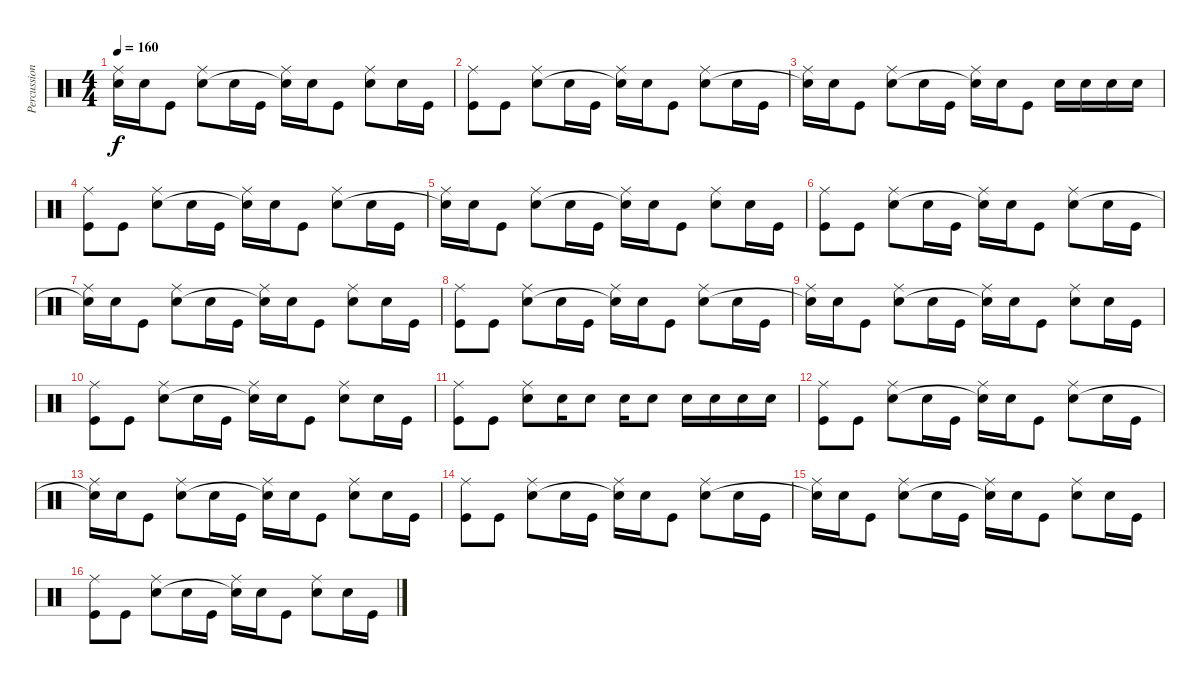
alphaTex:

\track ("Percussion" "Percussion") {instrument percussion}
\staff {score}
\articulation defaults
\ts (4 4)
\tempo 160
\clef neutral
\ks c
("Ride (middle)" "Snare (hit)"{t}).16{dy f} "Snare (hit) 2".16 "Kick (hit)".8 ("Ride (middle)" "Snare (hit) 2").8 "Snare (hit) 2".16 "Kick (hit)".16 ("Ride (middle)" "Snare (hit)"{t}).16 "Snare (hit) 2".16 "Kick (hit)".8 ("Ride (middle)" "Snare (hit) 2").8 "Snare (hit) 2".16 "Kick (hit)".16 |
("Ride (middle)" "Kick (hit)").8 "Kick (hit)".8 ("Ride (middle)" "Snare (hit) 2").8 "Snare (hit) 2".16 "Kick (hit)".16 ("Ride (middle)" "Snare (hit)"{t}).16 "Snare (hit) 2".16 "Kick (hit)".8 ("Ride (middle)" "Snare (hit) 2").8 "Snare (hit) 2".16 "Kick (hit)".16 |
("Ride (middle)" "Snare (hit)"{t}).16 "Snare (hit) 2".16 "Kick (hit)".8 ("Ride (middle)" "Snare (hit) 2").8 "Snare (hit) 2".16 "Kick (hit)".16 ("Ride (middle)" "Snare (hit)"{t}).16 "Snare (hit) 2".16 "Kick (hit)".8 "Snare (hit) 2".16 "Snare (hit) 2".16 "Snare (hit) 2".16 "Snare (hit) 2".16 |
("Ride (middle)" "Kick (hit)").8 "Kick (hit)".8 ("Ride (middle)" "Snare (hit) 2").8 "Snare (hit) 2".16 "Kick (hit)".16 ("Ride (middle)" "Snare (hit)"{t}).16 "Snare (hit) 2".16 "Kick (hit)".8 ("Ride (middle)" "Snare (hit) 2").8 "Snare (hit) 2".16 "Kick (hit)".16 |
("Ride (middle)" "Snare (hit)"{t}).16 "Snare (hit) 2".16 "Kick (hit)".8 ("Ride (middle)" "Snare (hit) 2").8 "Snare (hit) 2".16 "Kick (hit)".16 ("Ride (middle)" "Snare (hit)"{t}).16 "Snare (hit) 2".16 "Kick (hit)".8 ("Ride (middle)" "Snare (hit) 2").8 "Snare (hit) 2".16 "Kick (hit)".16 |
("Ride (middle)" "Kick (hit)").8 "Kick (hit)".8 ("Ride (middle)" "Snare (hit) 2").8 "Snare (hit) 2".16 "Kick (hit)".16 ("Ride (middle)" "Snare (hit)"{t}).16 "Snare (hit) 2".16 "Kick (hit)".8 ("Ride (middle)" "Snare (hit) 2").8 "Snare (hit) 2".16 "Kick (hit)".16 |
("Ride (middle)" "Snare (hit)"{t}).16 "Snare (hit) 2".16 "Kick (hit)".8 ("Ride (middle)" "Snare (hit) 2").8 "Snare (hit) 2".16 "Kick (hit)".16 ("Ride (middle)" "Snare (hit)"{t}).16 "Snare (hit) 2".16 "Kick (hit)".8 ("Ride (middle)" "Snare (hit) 2").8 "Snare (hit) 2".16 "Kick (hit)".16 |
("Ride (middle)" "Kick (hit)").8 "Kick (hit)".8 ("Ride (middle)" "Snare (hit) 2").8 "Snare (hit) 2".16 "Kick (hit)".16 ("Ride (middle)" "Snare (hit)"{t}).16 "Snare (hit) 2".16 "Kick (hit)".8 ("Ride (middle)" "Snare (hit) 2").8 "Snare (hit) 2".16 "Kick (hit)".16 |
("Ride (middle)" "Snare (hit)"{t}).16 "Snare (hit) 2".16 "Kick (hit)".8 ("Ride (middle)" "Snare (hit) 2").8 "Snare (hit) 2".16 "Kick (hit)".16 ("Ride (middle)" "Snare (hit)"{t}).16 "Snare (hit) 2".16 "Kick (hit)".8 ("Ride (middle)" "Snare (hit) 2").8 "Snare (hit) 2".16 "Kick (hit)".16 |
("Ride (middle)" "Kick (hit)").8 "Kick (hit)".8 ("Ride (middle)" "Snare (hit) 2").8 "Snare (hit) 2".16 "Kick (hit)".16 ("Ride (middle)" "Snare (hit)"{t}).16 "Snare (hit) 2".16 "Kick (hit)".8 ("Ride (middle)" "Snare (hit) 2").8 "Snare (hit) 2".16 "Kick (hit)".16 |
("Ride (middle)" "Kick (hit)").8 "Kick (hit)".8 ("Ride (middle)" "Snare (hit) 2").8 "Snare (hit) 2".16 "Snare (hit) 2".8 "Snare (hit) 2".16 "Snare (hit) 2".8 "Snare (hit) 2".16 "Snare (hit) 2".16 "Snare (hit) 2".16 "Snare (hit) 2".16 |
("Ride (middle)" "Kick (hit)").8 "Kick (hit)".8 ("Ride (middle)" "Snare (hit) 2").8 "Snare (hit) 2".16 "Kick (hit)".16 ("Ride (middle)" "Snare (hit)"{t}).16 "Snare (hit) 2".16 "Kick (hit)".8 ("Ride (middle)" "Snare (hit) 2").8 "Snare (hit) 2".16 "Kick (hit)".16 |
("Ride (middle)" "Snare (hit)"{t}).16 "Snare (hit) 2".16 "Kick (hit)".8 ("Ride (middle)" "Snare (hit) 2").8 "Snare (hit) 2".16 "Kick (hit)".16 ("Ride (middle)" "Snare (hit)"{t}).16 "Snare (hit) 2".16 "Kick (hit)".8 ("Ride (middle)" "Snare (hit) 2").8 "Snare (hit) 2".16 "Kick (hit)".16 |
("Ride (middle)" "Kick (hit)").8 "Kick (hit)".8 ("Ride (middle)" "Snare (hit) 2").8 "Snare (hit) 2".16 "Kick (hit)".16 ("Ride (middle)" "Snare (hit)"{t}).16 "Snare (hit) 2".16 "Kick (hit)".8 ("Ride (middle)" "Snare (hit) 2").8 "Snare (hit) 2".16 "Kick (hit)".16 |
("Ride (middle)" "Snare (hit)"{t}).16 "Snare (hit) 2".16 "Kick (hit)".8 ("Ride (middle)" "Snare (hit) 2").8 "Snare (hit) 2".16 "Kick (hit)".16 ("Ride (middle)" "Snare (hit)"{t}).16 "Snare (hit) 2".16 "Kick (hit)".8 ("Ride (middle)" "Snare (hit) 2").8 "Snare (hit) 2".16 "Kick (hit)".16 |
("Ride (middle)" "Kick (hit)").8 "Kick (hit)".8 ("Ride (middle)" "Snare (hit) 2").8 "Snare (hit) 2".16 "Kick (hit)".16 ("Ride (middle)" "Snare (hit)"{t}).16 "Snare (hit) 2".16 "Kick (hit)".8 ("Ride (middle)" "Snare (hit) 2").8 "Snare (hit) 2".16 "Kick (hit)".16
